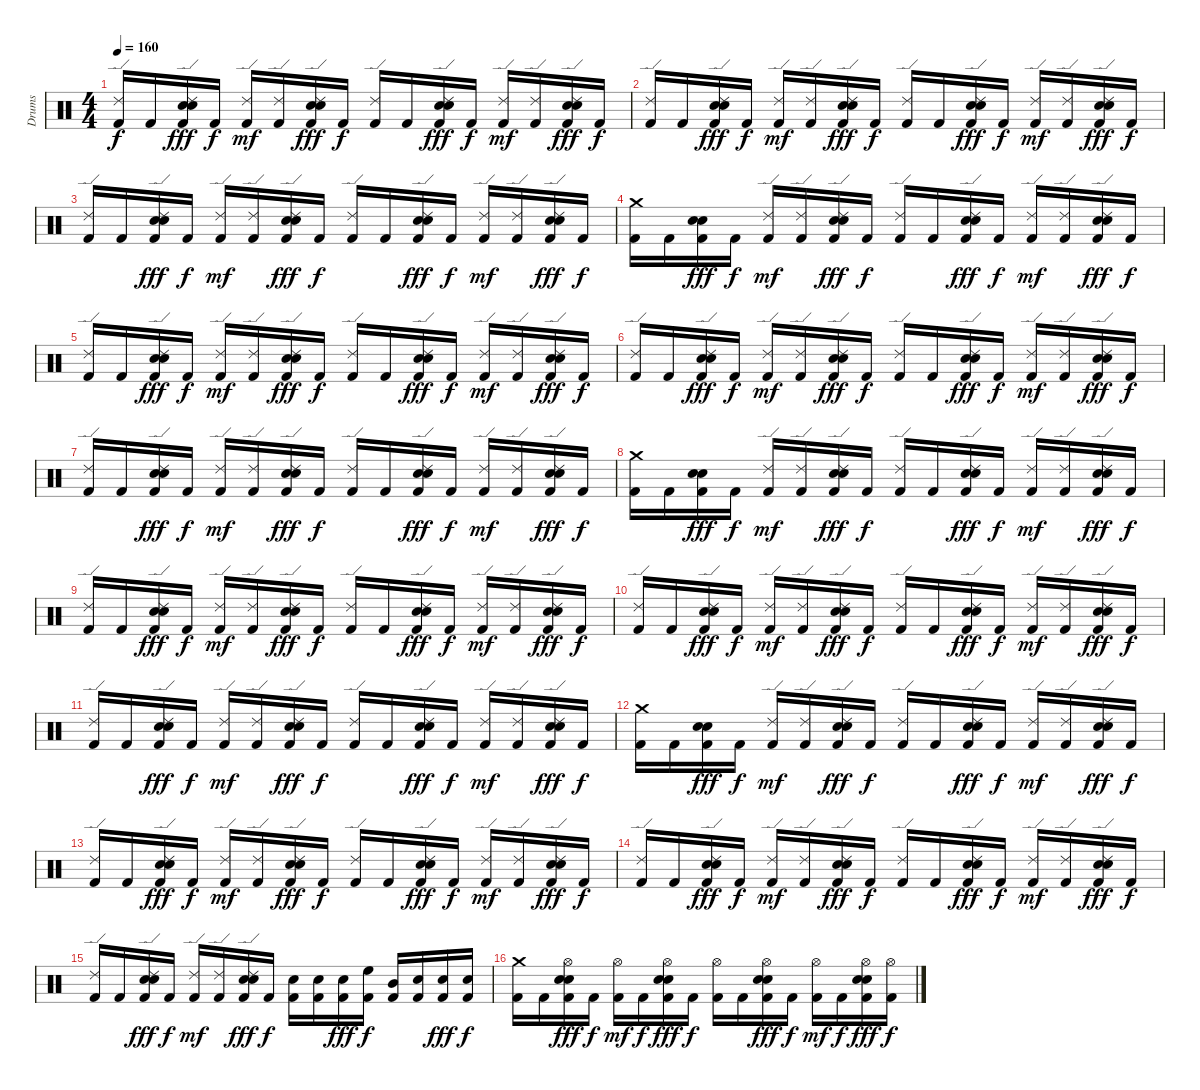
\track ("Drums" "Drums") {instrument percussion}
\staff {score}
\articulation defaults
\ts (4 4)
\tempo 160
\clef neutral
\ks c
("Kick (hit) 2" "Ride (edge) 2").16{dy f} "Kick (hit) 2".16 ("Kick (hit) 2" "Snare (hit) 2" "Ride (edge) 2" "Snare (hit) 2").16{dy fff} "Kick (hit) 2".16{dy f} ("Kick (hit) 2" "Ride (edge) 2").16{dy mf} ("Kick (hit) 2" "Ride (edge) 2").16 ("Kick (hit) 2" "Snare (hit) 2" "Ride (edge) 2" "Snare (hit) 2").16{dy fff} "Kick (hit) 2".16{dy f} ("Kick (hit) 2" "Ride (edge) 2").16 "Kick (hit) 2".16 ("Kick (hit) 2" "Snare (hit) 2" "Ride (edge) 2" "Snare (hit) 2").16{dy fff} "Kick (hit) 2".16{dy f} ("Kick (hit) 2" "Ride (edge) 2").16{dy mf} ("Kick (hit) 2" "Ride (edge) 2").16 ("Kick (hit) 2" "Snare (hit) 2" "Ride (edge) 2" "Snare (hit) 2").16{dy fff} "Kick (hit) 2".16{dy f} |
("Kick (hit) 2" "Ride (edge) 2").16 "Kick (hit) 2".16 ("Kick (hit) 2" "Snare (hit) 2" "Ride (edge) 2" "Snare (hit) 2").16{dy fff} "Kick (hit) 2".16{dy f} ("Kick (hit) 2" "Ride (edge) 2").16{dy mf} ("Kick (hit) 2" "Ride (edge) 2").16 ("Kick (hit) 2" "Snare (hit) 2" "Ride (edge) 2" "Snare (hit) 2").16{dy fff} "Kick (hit) 2".16{dy f} ("Kick (hit) 2" "Ride (edge) 2").16 "Kick (hit) 2".16 ("Kick (hit) 2" "Snare (hit) 2" "Ride (edge) 2" "Snare (hit) 2").16{dy fff} "Kick (hit) 2".16{dy f} ("Kick (hit) 2" "Ride (edge) 2").16{dy mf} ("Kick (hit) 2" "Ride (edge) 2").16 ("Kick (hit) 2" "Snare (hit) 2" "Ride (edge) 2" "Snare (hit) 2").16{dy fff} "Kick (hit) 2".16{dy f} |
("Kick (hit) 2" "Ride (edge) 2").16 "Kick (hit) 2".16 ("Kick (hit) 2" "Snare (hit) 2" "Ride (edge) 2" "Snare (hit) 2").16{dy fff} "Kick (hit) 2".16{dy f} ("Kick (hit) 2" "Ride (edge) 2").16{dy mf} ("Kick (hit) 2" "Ride (edge) 2").16 ("Kick (hit) 2" "Snare (hit) 2" "Ride (edge) 2" "Snare (hit) 2").16{dy fff} "Kick (hit) 2".16{dy f} ("Kick (hit) 2" "Ride (edge) 2").16 "Kick (hit) 2".16 ("Kick (hit) 2" "Snare (hit) 2" "Ride (edge) 2" "Snare (hit) 2").16{dy fff} "Kick (hit) 2".16{dy f} ("Kick (hit) 2" "Ride (edge) 2").16{dy mf} ("Kick (hit) 2" "Ride (edge) 2").16 ("Kick (hit) 2" "Snare (hit) 2" "Ride (edge) 2" "Snare (hit) 2").16{dy fff} "Kick (hit) 2".16{dy f} |
("Kick (hit) 2" "Crash medium (hit)").16 "Kick (hit) 2".16 ("Kick (hit) 2" "Snare (hit) 2" "Snare (hit) 2").16{dy fff} "Kick (hit) 2".16{dy f} ("Kick (hit) 2" "Ride (edge) 2").16{dy mf} ("Kick (hit) 2" "Ride (edge) 2").16 ("Kick (hit) 2" "Snare (hit) 2" "Ride (edge) 2" "Snare (hit) 2").16{dy fff} "Kick (hit) 2".16{dy f} ("Kick (hit) 2" "Ride (edge) 2").16 "Kick (hit) 2".16 ("Kick (hit) 2" "Snare (hit) 2" "Ride (edge) 2" "Snare (hit) 2").16{dy fff} "Kick (hit) 2".16{dy f} ("Kick (hit) 2" "Ride (edge) 2").16{dy mf} ("Kick (hit) 2" "Ride (edge) 2").16 ("Kick (hit) 2" "Snare (hit) 2" "Ride (edge) 2" "Snare (hit) 2").16{dy fff} "Kick (hit) 2".16{dy f} |
("Kick (hit) 2" "Ride (edge) 2").16 "Kick (hit) 2".16 ("Kick (hit) 2" "Snare (hit) 2" "Ride (edge) 2" "Snare (hit) 2").16{dy fff} "Kick (hit) 2".16{dy f} ("Kick (hit) 2" "Ride (edge) 2").16{dy mf} ("Kick (hit) 2" "Ride (edge) 2").16 ("Kick (hit) 2" "Snare (hit) 2" "Ride (edge) 2" "Snare (hit) 2").16{dy fff} "Kick (hit) 2".16{dy f} ("Kick (hit) 2" "Ride (edge) 2").16 "Kick (hit) 2".16 ("Kick (hit) 2" "Snare (hit) 2" "Ride (edge) 2" "Snare (hit) 2").16{dy fff} "Kick (hit) 2".16{dy f} ("Kick (hit) 2" "Ride (edge) 2").16{dy mf} ("Kick (hit) 2" "Ride (edge) 2").16 ("Kick (hit) 2" "Snare (hit) 2" "Ride (edge) 2" "Snare (hit) 2").16{dy fff} "Kick (hit) 2".16{dy f} |
("Kick (hit) 2" "Ride (edge) 2").16 "Kick (hit) 2".16 ("Kick (hit) 2" "Snare (hit) 2" "Ride (edge) 2" "Snare (hit) 2").16{dy fff} "Kick (hit) 2".16{dy f} ("Kick (hit) 2" "Ride (edge) 2").16{dy mf} ("Kick (hit) 2" "Ride (edge) 2").16 ("Kick (hit) 2" "Snare (hit) 2" "Ride (edge) 2" "Snare (hit) 2").16{dy fff} "Kick (hit) 2".16{dy f} ("Kick (hit) 2" "Ride (edge) 2").16 "Kick (hit) 2".16 ("Kick (hit) 2" "Snare (hit) 2" "Ride (edge) 2" "Snare (hit) 2").16{dy fff} "Kick (hit) 2".16{dy f} ("Kick (hit) 2" "Ride (edge) 2").16{dy mf} ("Kick (hit) 2" "Ride (edge) 2").16 ("Kick (hit) 2" "Snare (hit) 2" "Ride (edge) 2" "Snare (hit) 2").16{dy fff} "Kick (hit) 2".16{dy f} |
("Kick (hit) 2" "Ride (edge) 2").16 "Kick (hit) 2".16 ("Kick (hit) 2" "Snare (hit) 2" "Ride (edge) 2" "Snare (hit) 2").16{dy fff} "Kick (hit) 2".16{dy f} ("Kick (hit) 2" "Ride (edge) 2").16{dy mf} ("Kick (hit) 2" "Ride (edge) 2").16 ("Kick (hit) 2" "Snare (hit) 2" "Ride (edge) 2" "Snare (hit) 2").16{dy fff} "Kick (hit) 2".16{dy f} ("Kick (hit) 2" "Ride (edge) 2").16 "Kick (hit) 2".16 ("Kick (hit) 2" "Snare (hit) 2" "Ride (edge) 2" "Snare (hit) 2").16{dy fff} "Kick (hit) 2".16{dy f} ("Kick (hit) 2" "Ride (edge) 2").16{dy mf} ("Kick (hit) 2" "Ride (edge) 2").16 ("Kick (hit) 2" "Snare (hit) 2" "Ride (edge) 2" "Snare (hit) 2").16{dy fff} "Kick (hit) 2".16{dy f} |
("Kick (hit) 2" "Crash medium (hit)").16 "Kick (hit) 2".16 ("Kick (hit) 2" "Snare (hit) 2" "Snare (hit) 2").16{dy fff} "Kick (hit) 2".16{dy f} ("Kick (hit) 2" "Ride (edge) 2").16{dy mf} ("Kick (hit) 2" "Ride (edge) 2").16 ("Kick (hit) 2" "Snare (hit) 2" "Ride (edge) 2" "Snare (hit) 2").16{dy fff} "Kick (hit) 2".16{dy f} ("Kick (hit) 2" "Ride (edge) 2").16 "Kick (hit) 2".16 ("Kick (hit) 2" "Snare (hit) 2" "Ride (edge) 2" "Snare (hit) 2").16{dy fff} "Kick (hit) 2".16{dy f} ("Kick (hit) 2" "Ride (edge) 2").16{dy mf} ("Kick (hit) 2" "Ride (edge) 2").16 ("Kick (hit) 2" "Snare (hit) 2" "Ride (edge) 2" "Snare (hit) 2").16{dy fff} "Kick (hit) 2".16{dy f} |
("Kick (hit) 2" "Ride (edge) 2").16 "Kick (hit) 2".16 ("Kick (hit) 2" "Snare (hit) 2" "Ride (edge) 2" "Snare (hit) 2").16{dy fff} "Kick (hit) 2".16{dy f} ("Kick (hit) 2" "Ride (edge) 2").16{dy mf} ("Kick (hit) 2" "Ride (edge) 2").16 ("Kick (hit) 2" "Snare (hit) 2" "Ride (edge) 2" "Snare (hit) 2").16{dy fff} "Kick (hit) 2".16{dy f} ("Kick (hit) 2" "Ride (edge) 2").16 "Kick (hit) 2".16 ("Kick (hit) 2" "Snare (hit) 2" "Ride (edge) 2" "Snare (hit) 2").16{dy fff} "Kick (hit) 2".16{dy f} ("Kick (hit) 2" "Ride (edge) 2").16{dy mf} ("Kick (hit) 2" "Ride (edge) 2").16 ("Kick (hit) 2" "Snare (hit) 2" "Ride (edge) 2" "Snare (hit) 2").16{dy fff} "Kick (hit) 2".16{dy f} |
("Kick (hit) 2" "Ride (edge) 2").16 "Kick (hit) 2".16 ("Kick (hit) 2" "Snare (hit) 2" "Ride (edge) 2" "Snare (hit) 2").16{dy fff} "Kick (hit) 2".16{dy f} ("Kick (hit) 2" "Ride (edge) 2").16{dy mf} ("Kick (hit) 2" "Ride (edge) 2").16 ("Kick (hit) 2" "Snare (hit) 2" "Ride (edge) 2" "Snare (hit) 2").16{dy fff} "Kick (hit) 2".16{dy f} ("Kick (hit) 2" "Ride (edge) 2").16 "Kick (hit) 2".16 ("Kick (hit) 2" "Snare (hit) 2" "Ride (edge) 2" "Snare (hit) 2").16{dy fff} "Kick (hit) 2".16{dy f} ("Kick (hit) 2" "Ride (edge) 2").16{dy mf} ("Kick (hit) 2" "Ride (edge) 2").16 ("Kick (hit) 2" "Snare (hit) 2" "Ride (edge) 2" "Snare (hit) 2").16{dy fff} "Kick (hit) 2".16{dy f} |
("Kick (hit) 2" "Ride (edge) 2").16 "Kick (hit) 2".16 ("Kick (hit) 2" "Snare (hit) 2" "Ride (edge) 2" "Snare (hit) 2").16{dy fff} "Kick (hit) 2".16{dy f} ("Kick (hit) 2" "Ride (edge) 2").16{dy mf} ("Kick (hit) 2" "Ride (edge) 2").16 ("Kick (hit) 2" "Snare (hit) 2" "Ride (edge) 2" "Snare (hit) 2").16{dy fff} "Kick (hit) 2".16{dy f} ("Kick (hit) 2" "Ride (edge) 2").16 "Kick (hit) 2".16 ("Kick (hit) 2" "Snare (hit) 2" "Ride (edge) 2" "Snare (hit) 2").16{dy fff} "Kick (hit) 2".16{dy f} ("Kick (hit) 2" "Ride (edge) 2").16{dy mf} ("Kick (hit) 2" "Ride (edge) 2").16 ("Kick (hit) 2" "Snare (hit) 2" "Ride (edge) 2" "Snare (hit) 2").16{dy fff} "Kick (hit) 2".16{dy f} |
("Kick (hit) 2" "Crash medium (hit)").16 "Kick (hit) 2".16 ("Kick (hit) 2" "Snare (hit) 2" "Snare (hit) 2").16{dy fff} "Kick (hit) 2".16{dy f} ("Kick (hit) 2" "Ride (edge) 2").16{dy mf} ("Kick (hit) 2" "Ride (edge) 2").16 ("Kick (hit) 2" "Snare (hit) 2" "Ride (edge) 2" "Snare (hit) 2").16{dy fff} "Kick (hit) 2".16{dy f} ("Kick (hit) 2" "Ride (edge) 2").16 "Kick (hit) 2".16 ("Kick (hit) 2" "Snare (hit) 2" "Ride (edge) 2" "Snare (hit) 2").16{dy fff} "Kick (hit) 2".16{dy f} ("Kick (hit) 2" "Ride (edge) 2").16{dy mf} ("Kick (hit) 2" "Ride (edge) 2").16 ("Kick (hit) 2" "Snare (hit) 2" "Ride (edge) 2" "Snare (hit) 2").16{dy fff} "Kick (hit) 2".16{dy f} |
("Kick (hit) 2" "Ride (edge) 2").16 "Kick (hit) 2".16 ("Kick (hit) 2" "Snare (hit) 2" "Ride (edge) 2" "Snare (hit) 2").16{dy fff} "Kick (hit) 2".16{dy f} ("Kick (hit) 2" "Ride (edge) 2").16{dy mf} ("Kick (hit) 2" "Ride (edge) 2").16 ("Kick (hit) 2" "Snare (hit) 2" "Ride (edge) 2" "Snare (hit) 2").16{dy fff} "Kick (hit) 2".16{dy f} ("Kick (hit) 2" "Ride (edge) 2").16 "Kick (hit) 2".16 ("Kick (hit) 2" "Snare (hit) 2" "Ride (edge) 2" "Snare (hit) 2").16{dy fff} "Kick (hit) 2".16{dy f} ("Kick (hit) 2" "Ride (edge) 2").16{dy mf} ("Kick (hit) 2" "Ride (edge) 2").16 ("Kick (hit) 2" "Snare (hit) 2" "Ride (edge) 2" "Snare (hit) 2").16{dy fff} "Kick (hit) 2".16{dy f} |
("Kick (hit) 2" "Ride (edge) 2").16 "Kick (hit) 2".16 ("Kick (hit) 2" "Snare (hit) 2" "Ride (edge) 2" "Snare (hit) 2").16{dy fff} "Kick (hit) 2".16{dy f} ("Kick (hit) 2" "Ride (edge) 2").16{dy mf} ("Kick (hit) 2" "Ride (edge) 2").16 ("Kick (hit) 2" "Snare (hit) 2" "Ride (edge) 2" "Snare (hit) 2").16{dy fff} "Kick (hit) 2".16{dy f} ("Kick (hit) 2" "Ride (edge) 2").16 "Kick (hit) 2".16 ("Kick (hit) 2" "Snare (hit) 2" "Ride (edge) 2" "Snare (hit) 2").16{dy fff} "Kick (hit) 2".16{dy f} ("Kick (hit) 2" "Ride (edge) 2").16{dy mf} ("Kick (hit) 2" "Ride (edge) 2").16 ("Kick (hit) 2" "Snare (hit) 2" "Ride (edge) 2" "Snare (hit) 2").16{dy fff} "Kick (hit) 2".16{dy f} |
("Kick (hit) 2" "Ride (edge) 2").16 "Kick (hit) 2".16 ("Kick (hit) 2" "Snare (hit) 2" "Ride (edge) 2" "Snare (hit) 2").16{dy fff} "Kick (hit) 2".16{dy f} ("Kick (hit) 2" "Ride (edge) 2").16{dy mf} ("Kick (hit) 2" "Ride (edge) 2").16 ("Kick (hit) 2" "Snare (hit) 2" "Ride (edge) 2" "Snare (hit) 2").16{dy fff} "Kick (hit) 2".16{dy f} ("Kick (hit) 2" "Electric Snare (hit)").16 ("Kick (hit) 2" "Electric Snare (hit)").16 ("Kick (hit) 2" "Snare (hit) 2").16{dy fff} ("Kick (hit) 2" "High Floor Tom (hit)").16{dy f} ("Kick (hit) 2" "Mid Tom (hit)").16 ("Kick (hit) 2" "Snare (hit) 2").16 ("Kick (hit) 2" "Snare (hit) 2").16{dy fff} ("Kick (hit) 2" "Electric Snare (hit)").16{dy f} |
("Kick (hit) 2" "Crash medium (hit)").16 "Kick (hit) 2".16 ("Kick (hit) 2" "Electric Snare (hit)" "Hi-Hat (open)" "Snare (hit) 2").16{dy fff} "Kick (hit) 2".16{dy f} ("Kick (hit) 2" "Hi-Hat (open)").16{dy mf} "Kick (hit) 2".16{dy f} ("Kick (hit) 2" "Electric Snare (hit)" "Hi-Hat (open)" "Snare (hit) 2").16{dy fff} "Kick (hit) 2".16{dy f} ("Kick (hit) 2" "Hi-Hat (open)").16 "Kick (hit) 2".16 ("Kick (hit) 2" "Electric Snare (hit)" "Hi-Hat (open)" "Electric Snare (hit)").16{dy fff} "Kick (hit) 2".16{dy f} ("Kick (hit) 2" "Hi-Hat (open)").16{dy mf} "Kick (hit) 2".16{dy f} ("Kick (hit) 2" "Electric Snare (hit)" "Hi-Hat (open)" "Electric Snare (hit)").16{dy fff} ("Kick (hit) 2" "Hi-Hat (open)").16{dy f}
